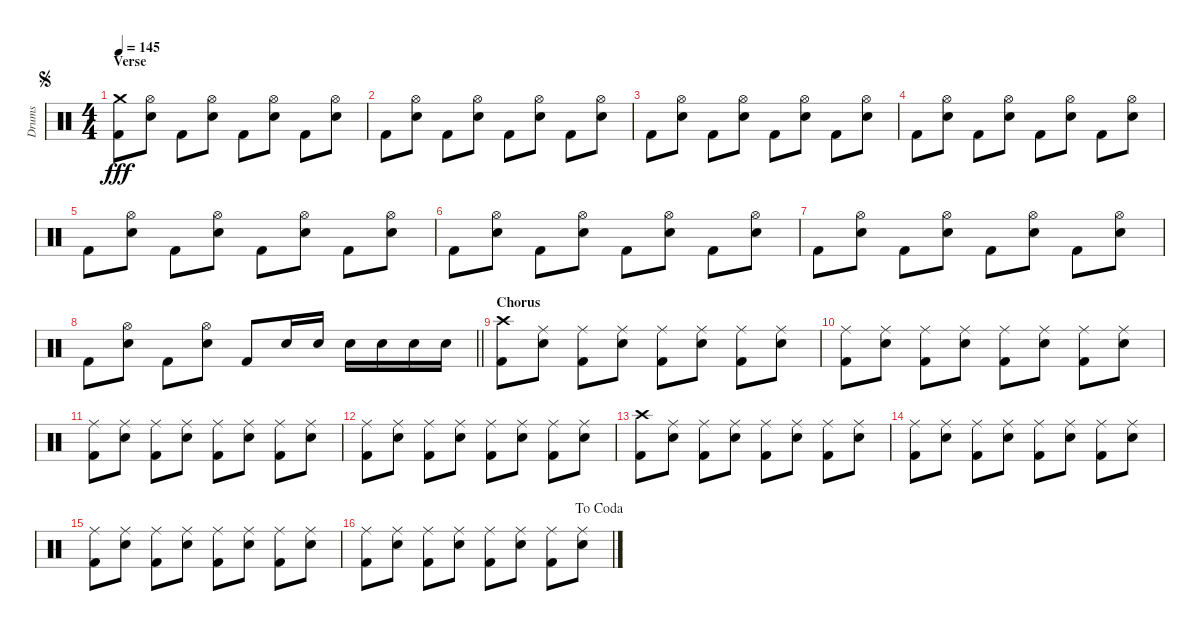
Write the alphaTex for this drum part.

\track ("Drums" "Drums") {instrument percussion}
\staff {score}
\articulation defaults
\ts (4 4)
\section ("" "Verse")
\jump segno
\tempo 145
\clef neutral
\ks c
("Crash medium (hit)" "Kick (hit) 2").8{dy fff} ("Hi-Hat (open)" "Snare (hit) 2").8 "Kick (hit) 2".8 ("Hi-Hat (open)" "Snare (hit) 2").8 "Kick (hit) 2".8 ("Hi-Hat (open)" "Snare (hit) 2").8 "Kick (hit) 2".8 ("Hi-Hat (open)" "Snare (hit) 2").8 |
"Kick (hit) 2".8 ("Hi-Hat (open)" "Snare (hit) 2").8 "Kick (hit) 2".8 ("Hi-Hat (open)" "Snare (hit) 2").8 "Kick (hit) 2".8 ("Hi-Hat (open)" "Snare (hit) 2").8 "Kick (hit) 2".8 ("Hi-Hat (open)" "Snare (hit) 2").8 |
"Kick (hit) 2".8 ("Hi-Hat (open)" "Snare (hit) 2").8 "Kick (hit) 2".8 ("Hi-Hat (open)" "Snare (hit) 2").8 "Kick (hit) 2".8 ("Hi-Hat (open)" "Snare (hit) 2").8 "Kick (hit) 2".8 ("Hi-Hat (open)" "Snare (hit) 2").8 |
"Kick (hit) 2".8 ("Hi-Hat (open)" "Snare (hit) 2").8 "Kick (hit) 2".8 ("Hi-Hat (open)" "Snare (hit) 2").8 "Kick (hit) 2".8 ("Hi-Hat (open)" "Snare (hit) 2").8 "Kick (hit) 2".8 ("Hi-Hat (open)" "Snare (hit) 2").8 |
"Kick (hit) 2".8 ("Hi-Hat (open)" "Snare (hit) 2").8 "Kick (hit) 2".8 ("Hi-Hat (open)" "Snare (hit) 2").8 "Kick (hit) 2".8 ("Hi-Hat (open)" "Snare (hit) 2").8 "Kick (hit) 2".8 ("Hi-Hat (open)" "Snare (hit) 2").8 |
"Kick (hit) 2".8 ("Hi-Hat (open)" "Snare (hit) 2").8 "Kick (hit) 2".8 ("Hi-Hat (open)" "Snare (hit) 2").8 "Kick (hit) 2".8 ("Hi-Hat (open)" "Snare (hit) 2").8 "Kick (hit) 2".8 ("Hi-Hat (open)" "Snare (hit) 2").8 |
"Kick (hit) 2".8 ("Hi-Hat (open)" "Snare (hit) 2").8 "Kick (hit) 2".8 ("Hi-Hat (open)" "Snare (hit) 2").8 "Kick (hit) 2".8 ("Hi-Hat (open)" "Snare (hit) 2").8 "Kick (hit) 2".8 ("Hi-Hat (open)" "Snare (hit) 2").8 |
\barLineRight lightlight "Kick (hit) 2".8
("Hi-Hat (open)" "Snare (hit) 2").8 "Kick (hit) 2".8 ("Hi-Hat (open)" "Snare (hit) 2").8 "Kick (hit) 2".8 "Snare (hit) 2".16 "Snare (hit) 2".16 "Snare (hit) 2".16 "Snare (hit) 2".16 "Snare (hit) 2".16 "Snare (hit) 2".16 |
\section ("" "Chorus")
("Crash high (hit)" "Kick (hit) 2").8 ("Ride (middle)" "Snare (hit) 2").8 ("Ride (middle)" "Kick (hit) 2").8 ("Ride (middle)" "Snare (hit) 2").8 ("Ride (middle)" "Kick (hit) 2").8 ("Ride (middle)" "Snare (hit) 2").8 ("Ride (middle)" "Kick (hit) 2").8 ("Ride (middle)" "Snare (hit) 2").8 |
("Ride (middle)" "Kick (hit) 2").8 ("Ride (middle)" "Snare (hit) 2").8 ("Ride (middle)" "Kick (hit) 2").8 ("Ride (middle)" "Snare (hit) 2").8 ("Ride (middle)" "Kick (hit) 2").8 ("Ride (middle)" "Snare (hit) 2").8 ("Ride (middle)" "Kick (hit) 2").8 ("Ride (middle)" "Snare (hit) 2").8 |
("Ride (middle)" "Kick (hit) 2").8 ("Ride (middle)" "Snare (hit) 2").8 ("Ride (middle)" "Kick (hit) 2").8 ("Ride (middle)" "Snare (hit) 2").8 ("Ride (middle)" "Kick (hit) 2").8 ("Ride (middle)" "Snare (hit) 2").8 ("Ride (middle)" "Kick (hit) 2").8 ("Ride (middle)" "Snare (hit) 2").8 |
("Ride (middle)" "Kick (hit) 2").8 ("Ride (middle)" "Snare (hit) 2").8 ("Ride (middle)" "Kick (hit) 2").8 ("Ride (middle)" "Snare (hit) 2").8 ("Ride (middle)" "Kick (hit) 2").8 ("Ride (middle)" "Snare (hit) 2").8 ("Ride (middle)" "Kick (hit) 2").8 ("Ride (middle)" "Snare (hit) 2").8 |
("Crash high (hit)" "Kick (hit) 2").8 ("Ride (middle)" "Snare (hit) 2").8 ("Ride (middle)" "Kick (hit) 2").8 ("Ride (middle)" "Snare (hit) 2").8 ("Ride (middle)" "Kick (hit) 2").8 ("Ride (middle)" "Snare (hit) 2").8 ("Ride (middle)" "Kick (hit) 2").8 ("Ride (middle)" "Snare (hit) 2").8 |
("Ride (middle)" "Kick (hit) 2").8 ("Ride (middle)" "Snare (hit) 2").8 ("Ride (middle)" "Kick (hit) 2").8 ("Ride (middle)" "Snare (hit) 2").8 ("Ride (middle)" "Kick (hit) 2").8 ("Ride (middle)" "Snare (hit) 2").8 ("Ride (middle)" "Kick (hit) 2").8 ("Ride (middle)" "Snare (hit) 2").8 |
("Ride (middle)" "Kick (hit) 2").8 ("Ride (middle)" "Snare (hit) 2").8 ("Ride (middle)" "Kick (hit) 2").8 ("Ride (middle)" "Snare (hit) 2").8 ("Ride (middle)" "Kick (hit) 2").8 ("Ride (middle)" "Snare (hit) 2").8 ("Ride (middle)" "Kick (hit) 2").8 ("Ride (middle)" "Snare (hit) 2").8 |
\jump dacoda
("Ride (middle)" "Kick (hit) 2").8 ("Ride (middle)" "Snare (hit) 2").8 ("Ride (middle)" "Kick (hit) 2").8 ("Ride (middle)" "Snare (hit) 2").8 ("Ride (middle)" "Kick (hit) 2").8 ("Ride (middle)" "Snare (hit) 2").8 ("Ride (middle)" "Kick (hit) 2").8 ("Ride (middle)" "Snare (hit) 2").8
